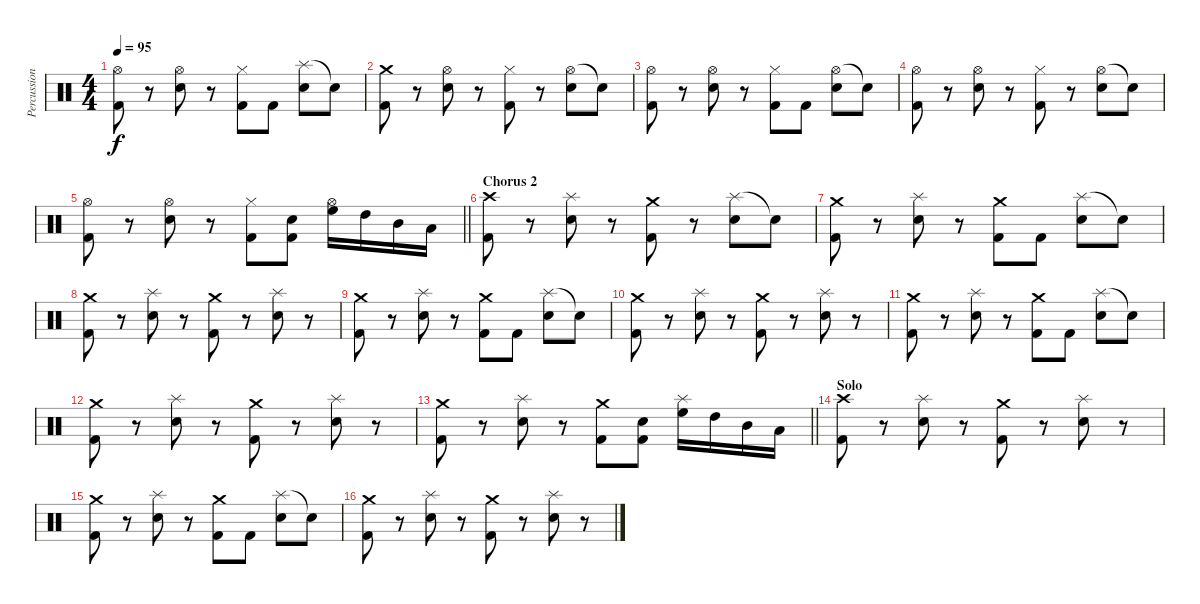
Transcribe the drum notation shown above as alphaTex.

\track ("Percussion" "Percussion") {instrument percussion}
\staff {score}
\articulation defaults
\ts (4 4)
\tempo 95
\clef neutral
\ks c
("Hi-Hat (open)" "Kick (hit) 2").8{dy f} r.8 ("Hi-Hat (open)" "Snare (hit) 2").8 r.8 ("Hi-Hat (closed)" "Kick (hit) 2").8 "Kick (hit) 2".8 ("Splash (hit)" "Snare (hit) 2").8 "Snare (hit) 2"{t}.8 |
("Crash medium (hit)" "Kick (hit) 2").8 r.8 ("Hi-Hat (open)" "Snare (hit) 2").8 r.8 ("Hi-Hat (closed)" "Kick (hit) 2").8 r.8 ("Hi-Hat (open)" "Snare (hit) 2").8 "Snare (hit) 2"{t}.8 |
("Hi-Hat (open)" "Kick (hit) 2").8 r.8 ("Hi-Hat (open)" "Snare (hit) 2").8 r.8 ("Hi-Hat (closed)" "Kick (hit) 2").8 "Kick (hit) 2".8 ("Hi-Hat (open)" "Snare (hit) 2").8 "Snare (hit) 2"{t}.8 |
("Hi-Hat (open)" "Kick (hit) 2").8 r.8 ("Hi-Hat (open)" "Snare (hit) 2").8 r.8 ("Hi-Hat (closed)" "Kick (hit) 2").8 r.8 ("Hi-Hat (open)" "Snare (hit) 2").8 "Snare (hit) 2"{t}.8 |
\barLineRight lightlight
("Hi-Hat (open)" "Kick (hit) 2").8 r.8 ("Hi-Hat (open)" "Snare (hit) 2").8 r.8 ("Hi-Hat (closed)" "Kick (hit) 2").8 ("Snare (hit) 2" "Kick (hit) 2").8 ("Hi-Hat (open)" "High Floor Tom (hit)").16 "High Tom (hit)".16 "Mid Tom (hit)".16 "Low Tom (hit)".16 |
\section ("" "Chorus 2")
("Crash high (hit)" "Kick (hit) 2").8 r.8 ("Splash (hit)" "Snare (hit) 2").8 r.8 ("Crash medium (hit)" "Kick (hit) 2").8 r.8 ("Splash (hit)" "Snare (hit) 2").8 "Snare (hit) 2"{t}.8 |
("Crash medium (hit)" "Kick (hit) 2").8 r.8 ("Splash (hit)" "Snare (hit) 2").8 r.8 ("Crash medium (hit)" "Kick (hit) 2").8 "Kick (hit) 2".8 ("Splash (hit)" "Snare (hit) 2").8 "Snare (hit) 2"{t}.8 |
("Crash medium (hit)" "Kick (hit) 2").8 r.8 ("Splash (hit)" "Snare (hit) 2").8 r.8 ("Crash medium (hit)" "Kick (hit) 2").8 r.8 ("Splash (hit)" "Snare (hit) 2").8 r.8 |
("Crash medium (hit)" "Kick (hit) 2").8 r.8 ("Splash (hit)" "Snare (hit) 2").8 r.8 ("Crash medium (hit)" "Kick (hit) 2").8 "Kick (hit) 2".8 ("Splash (hit)" "Snare (hit) 2").8 "Snare (hit) 2"{t}.8 |
("Crash medium (hit)" "Kick (hit) 2").8 r.8 ("Splash (hit)" "Snare (hit) 2").8 r.8 ("Crash medium (hit)" "Kick (hit) 2").8 r.8 ("Splash (hit)" "Snare (hit) 2").8 r.8 |
("Crash medium (hit)" "Kick (hit) 2").8 r.8 ("Splash (hit)" "Snare (hit) 2").8 r.8 ("Crash medium (hit)" "Kick (hit) 2").8 "Kick (hit) 2".8 ("Splash (hit)" "Snare (hit) 2").8 "Snare (hit) 2"{t}.8 |
("Crash medium (hit)" "Kick (hit) 2").8 r.8 ("Splash (hit)" "Snare (hit) 2").8 r.8 ("Crash medium (hit)" "Kick (hit) 2").8 r.8 ("Splash (hit)" "Snare (hit) 2").8 r.8 |
\barLineRight lightlight
("Crash medium (hit)" "Kick (hit) 2").8 r.8 ("Splash (hit)" "Snare (hit) 2").8 r.8 ("Crash medium (hit)" "Kick (hit) 2").8 ("Snare (hit) 2" "Kick (hit) 2").8 ("Splash (hit)" "High Floor Tom (hit)").16 "High Tom (hit)".16 "Mid Tom (hit)".16 "Low Tom (hit)".16 |
\section ("" "Solo")
("Crash high (hit)" "Kick (hit) 2").8 r.8 ("Splash (hit)" "Snare (hit) 2").8 r.8 ("Crash medium (hit)" "Kick (hit) 2").8 r.8 ("Splash (hit)" "Snare (hit) 2").8 r.8 |
("Crash medium (hit)" "Kick (hit) 2").8 r.8 ("Splash (hit)" "Snare (hit) 2").8 r.8 ("Crash medium (hit)" "Kick (hit) 2").8 "Kick (hit) 2".8 ("Splash (hit)" "Snare (hit) 2").8 "Snare (hit) 2"{t}.8 |
("Crash medium (hit)" "Kick (hit) 2").8 r.8 ("Splash (hit)" "Snare (hit) 2").8 r.8 ("Crash medium (hit)" "Kick (hit) 2").8 r.8 ("Splash (hit)" "Snare (hit) 2").8 r.8
